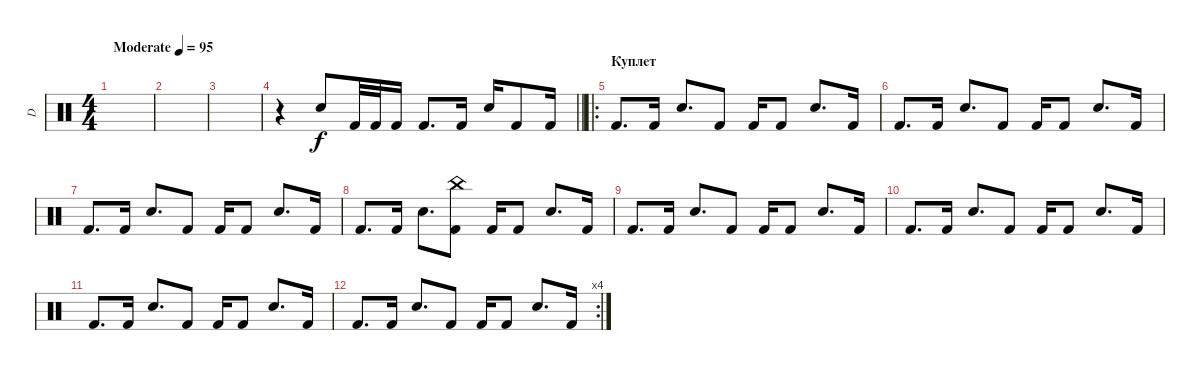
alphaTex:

\track ("D" "D") {instrument percussion}
\staff {score}
\articulation defaults
\ts (4 4)
\tempo (95 "Moderate")
\clef neutral
\ks c
|
|
|
\barLineRight lightlight
r.4 "Electric Snare (hit)".8 "Kick (hit) 2".32 "Kick (hit) 2".32 "Kick (hit) 2".16 "Kick (hit) 2".8{d} "Kick (hit) 2".16 "Electric Snare (hit)".16 "Kick (hit) 2".8 "Kick (hit) 2".16 |
\ro
\section ("" "Куплет ")
"Kick (hit) 2".8{d} "Kick (hit) 2".16 "Electric Snare (hit)".8{d} "Kick (hit) 2".8 "Kick (hit) 2".16 "Kick (hit) 2".8 "Electric Snare (hit)".8{d} "Kick (hit) 2".16 |
"Kick (hit) 2".8{d} "Kick (hit) 2".16 "Electric Snare (hit)".8{d} "Kick (hit) 2".8 "Kick (hit) 2".16 "Kick (hit) 2".8 "Electric Snare (hit)".8{d} "Kick (hit) 2".16 |
"Kick (hit) 2".8{d} "Kick (hit) 2".16 "Electric Snare (hit)".8{d} "Kick (hit) 2".8 "Kick (hit) 2".16 "Kick (hit) 2".8 "Electric Snare (hit)".8{d} "Kick (hit) 2".16 |
"Kick (hit) 2".8{d} "Kick (hit) 2".16 "Electric Snare (hit)".8{d} ("Kick (hit) 2" "China (hit)").8 "Kick (hit) 2".16 "Kick (hit) 2".8 "Electric Snare (hit)".8{d} "Kick (hit) 2".16 |
"Kick (hit) 2".8{d} "Kick (hit) 2".16 "Electric Snare (hit)".8{d} "Kick (hit) 2".8 "Kick (hit) 2".16 "Kick (hit) 2".8 "Electric Snare (hit)".8{d} "Kick (hit) 2".16 |
"Kick (hit) 2".8{d} "Kick (hit) 2".16 "Electric Snare (hit)".8{d} "Kick (hit) 2".8 "Kick (hit) 2".16 "Kick (hit) 2".8 "Electric Snare (hit)".8{d} "Kick (hit) 2".16 |
"Kick (hit) 2".8{d} "Kick (hit) 2".16 "Electric Snare (hit)".8{d} "Kick (hit) 2".8 "Kick (hit) 2".16 "Kick (hit) 2".8 "Electric Snare (hit)".8{d} "Kick (hit) 2".16 |
\rc 4 "Kick (hit) 2".8{d} "Kick (hit) 2".16 "Electric Snare (hit)".8{d} "Kick (hit) 2".8 "Kick (hit) 2".16 "Kick (hit) 2".8 "Electric Snare (hit)".8{d} "Kick (hit) 2".16
